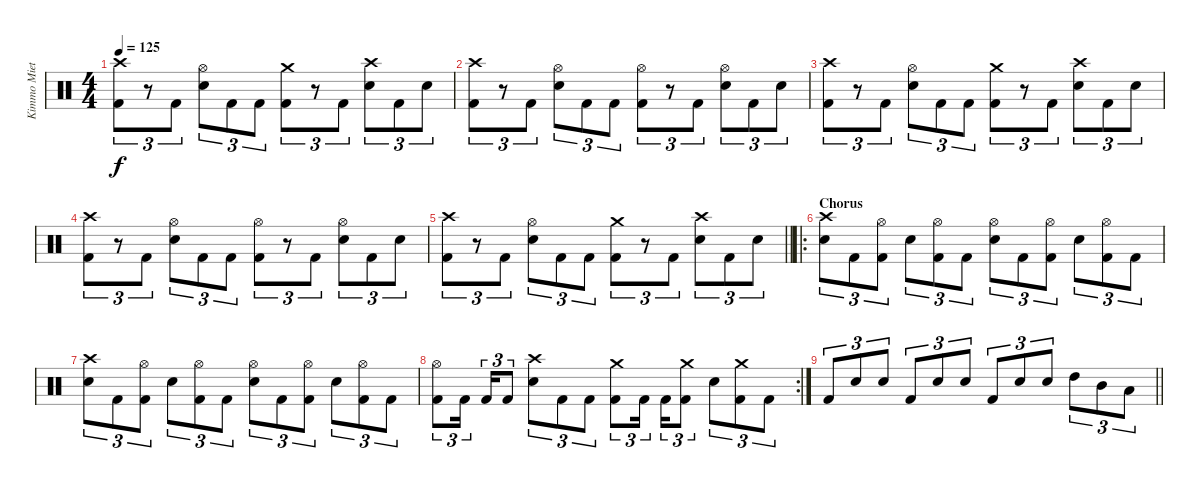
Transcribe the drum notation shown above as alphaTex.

\track ("Kimmo Miettinen" "Kimmo Miet") {instrument percussion}
\staff {score}
\articulation defaults
\ts (4 4)
\tempo 125
\clef neutral
\ks c
("Crash high (hit)" "Kick (hit) 2").8{tu (3 2) dy f} r.8{tu (3 2)} "Kick (hit) 2".8{tu (3 2)} ("Hi-Hat (open)" "Electric Snare (hit)").8{tu (3 2)} "Kick (hit) 2".8{tu (3 2)} "Kick (hit) 2".8{tu (3 2)} ("Crash medium (hit)" "Kick (hit) 2").8{tu (3 2)} r.8{tu (3 2)} "Kick (hit) 2".8{tu (3 2)} ("Crash high (hit)" "Electric Snare (hit)").8{tu (3 2)} "Kick (hit) 2".8{tu (3 2)} "Electric Snare (hit)".8{tu (3 2)} |
("Crash high (hit)" "Kick (hit) 2").8{tu (3 2)} r.8{tu (3 2)} "Kick (hit) 2".8{tu (3 2)} ("Hi-Hat (open)" "Electric Snare (hit)").8{tu (3 2)} "Kick (hit) 2".8{tu (3 2)} "Kick (hit) 2".8{tu (3 2)} ("Hi-Hat (open)" "Kick (hit) 2").8{tu (3 2)} r.8{tu (3 2)} "Kick (hit) 2".8{tu (3 2)} ("Hi-Hat (open)" "Electric Snare (hit)").8{tu (3 2)} "Kick (hit) 2".8{tu (3 2)} "Electric Snare (hit)".8{tu (3 2)} |
("Crash high (hit)" "Kick (hit) 2").8{tu (3 2)} r.8{tu (3 2)} "Kick (hit) 2".8{tu (3 2)} ("Hi-Hat (open)" "Electric Snare (hit)").8{tu (3 2)} "Kick (hit) 2".8{tu (3 2)} "Kick (hit) 2".8{tu (3 2)} ("Crash medium (hit)" "Kick (hit) 2").8{tu (3 2)} r.8{tu (3 2)} "Kick (hit) 2".8{tu (3 2)} ("Crash high (hit)" "Electric Snare (hit)").8{tu (3 2)} "Kick (hit) 2".8{tu (3 2)} "Electric Snare (hit)".8{tu (3 2)} |
("Crash high (hit)" "Kick (hit) 2").8{tu (3 2)} r.8{tu (3 2)} "Kick (hit) 2".8{tu (3 2)} ("Hi-Hat (open)" "Electric Snare (hit)").8{tu (3 2)} "Kick (hit) 2".8{tu (3 2)} "Kick (hit) 2".8{tu (3 2)} ("Hi-Hat (open)" "Kick (hit) 2").8{tu (3 2)} r.8{tu (3 2)} "Kick (hit) 2".8{tu (3 2)} ("Hi-Hat (open)" "Electric Snare (hit)").8{tu (3 2)} "Kick (hit) 2".8{tu (3 2)} "Electric Snare (hit)".8{tu (3 2)} |
\barLineRight lightlight
("Crash high (hit)" "Kick (hit) 2").8{tu (3 2)} r.8{tu (3 2)} "Kick (hit) 2".8{tu (3 2)} ("Hi-Hat (open)" "Electric Snare (hit)").8{tu (3 2)} "Kick (hit) 2".8{tu (3 2)} "Kick (hit) 2".8{tu (3 2)} ("Crash medium (hit)" "Kick (hit) 2").8{tu (3 2)} r.8{tu (3 2)} "Kick (hit) 2".8{tu (3 2)} ("Crash high (hit)" "Electric Snare (hit)").8{tu (3 2)} "Kick (hit) 2".8{tu (3 2)} "Electric Snare (hit)".8{tu (3 2)} |
\ro
\section ("" "Chorus")
("Crash high (hit)" "Electric Snare (hit)").8{tu (3 2)} "Kick (hit) 2".8{tu (3 2)} ("Hi-Hat (open)" "Kick (hit) 2").8{tu (3 2)} "Electric Snare (hit)".8{tu (3 2)} ("Hi-Hat (open)" "Kick (hit) 2").8{tu (3 2)} "Kick (hit) 2".8{tu (3 2)} ("Hi-Hat (open)" "Electric Snare (hit)").8{tu (3 2)} "Kick (hit) 2".8{tu (3 2)} ("Hi-Hat (open)" "Kick (hit) 2").8{tu (3 2)} "Electric Snare (hit)".8{tu (3 2)} ("Hi-Hat (open)" "Kick (hit) 2").8{tu (3 2)} "Kick (hit) 2".8{tu (3 2)} |
("Crash high (hit)" "Electric Snare (hit)").8{tu (3 2)} "Kick (hit) 2".8{tu (3 2)} ("Hi-Hat (open)" "Kick (hit) 2").8{tu (3 2)} "Electric Snare (hit)".8{tu (3 2)} ("Hi-Hat (open)" "Kick (hit) 2").8{tu (3 2)} "Kick (hit) 2".8{tu (3 2)} ("Hi-Hat (open)" "Electric Snare (hit)").8{tu (3 2)} "Kick (hit) 2".8{tu (3 2)} ("Hi-Hat (open)" "Kick (hit) 2").8{tu (3 2)} "Electric Snare (hit)".8{tu (3 2)} ("Hi-Hat (open)" "Kick (hit) 2").8{tu (3 2)} "Kick (hit) 2".8{tu (3 2)} |
\rc 2
("Hi-Hat (open)" "Kick (hit) 2").8{tu (3 2)} "Kick (hit) 2".16{tu (3 2) beam splitsecondary} "Kick (hit) 2".16{tu (3 2)} "Kick (hit) 2".8{tu (3 2)} ("Crash high (hit)" "Electric Snare (hit)").8{tu (3 2)} "Kick (hit) 2".8{tu (3 2)} "Kick (hit) 2".8{tu (3 2)} ("Crash medium (hit)" "Kick (hit) 2").8{tu (3 2)} "Kick (hit) 2".16{tu (3 2) beam splitsecondary} "Kick (hit) 2".16{tu (3 2)} ("Crash medium (hit)" "Kick (hit) 2").8{tu (3 2)} "Electric Snare (hit)".8{tu (3 2)} ("Crash medium (hit)" "Kick (hit) 2").8{tu (3 2)} "Kick (hit) 2".8{tu (3 2)} |
\barLineRight lightlight "Kick (hit) 2".8{tu (3 2)} "Electric Snare (hit)".8{tu (3 2)} "Electric Snare (hit)".8{tu (3 2)} "Kick (hit) 2".8{tu (3 2)} "Electric Snare (hit)".8{tu (3 2)} "Electric Snare (hit)".8{tu (3 2)} "Kick (hit) 2".8{tu (3 2)} "Electric Snare (hit)".8{tu (3 2)} "Electric Snare (hit)".8{tu (3 2)} "High Tom (hit)".8{tu (3 2)} "Mid Tom (hit)".8{tu (3 2)} "Low Tom (hit)".8{tu (3 2)}
